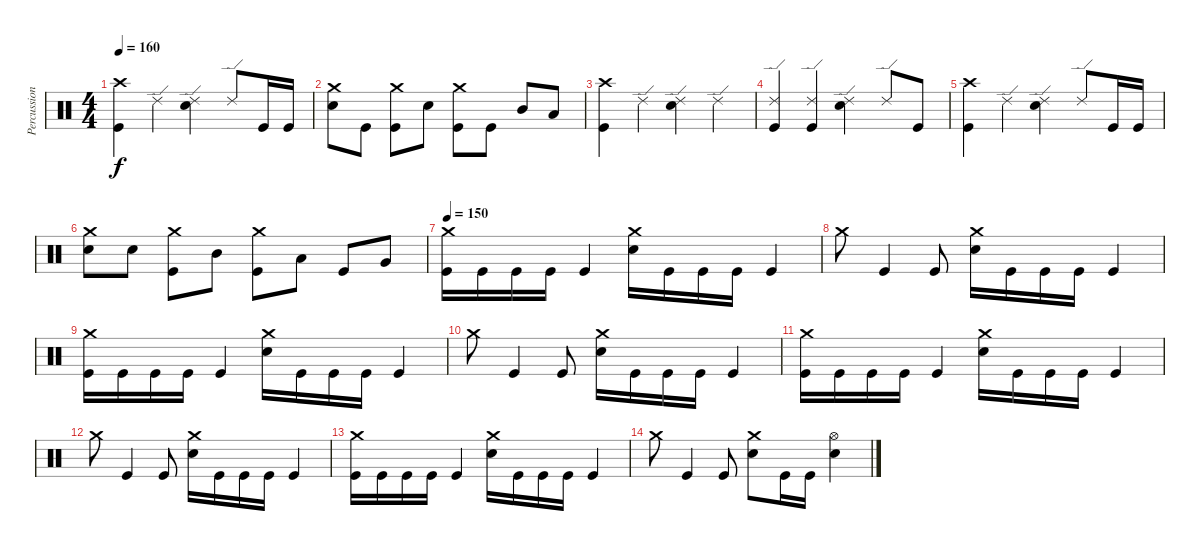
\track ("Percussion" "Percussion") {instrument percussion}
\staff {score}
\articulation defaults
\ts (4 4)
\tempo 160
\clef neutral
\ks c
("Crash high (hit)" "Kick (hit)").4{dy f} "Ride (edge) 2".4 ("Ride (edge) 2" "Electric Snare (hit)").4 "Ride (edge) 2".8 "Kick (hit)".16 "Kick (hit)".16 |
("Crash medium (hit)" "Electric Snare (hit)").8 "Kick (hit)".8 ("Crash medium (hit)" "Kick (hit)").8 "Electric Snare (hit)".8 ("Crash medium (hit)" "Kick (hit)").8 "Kick (hit)".8 "Mid Tom (hit)".8 "Low Tom (hit)".8 |
("Crash high (hit)" "Kick (hit)").4 "Ride (edge) 2".4 ("Ride (edge) 2" "Electric Snare (hit)").4 "Ride (edge) 2".4 |
("Ride (edge) 2" "Kick (hit)").4 ("Ride (edge) 2" "Kick (hit)").4 ("Ride (edge) 2" "Electric Snare (hit)").4 "Ride (edge) 2".8 "Kick (hit)".8 |
("Crash high (hit)" "Kick (hit)").4 "Ride (edge) 2".4 ("Ride (edge) 2" "Electric Snare (hit)").4 "Ride (edge) 2".8 "Kick (hit)".16 "Kick (hit)".16 |
("Crash medium (hit)" "Electric Snare (hit)").8 "Electric Snare (hit)".8 ("Crash medium (hit)" "Kick (hit)").8 "Mid Tom (hit)".8 ("Crash medium (hit)" "Kick (hit)").8 "Low Tom (hit)".8 "Kick (hit)".8 "Very Low Tom (hit)".8 |
\tempo 150
("Crash medium (hit)" "Kick (hit)").16 "Kick (hit)".16 "Kick (hit)".16 "Kick (hit)".16 "Kick (hit)".4 ("Crash medium (hit)" "Electric Snare (hit)").16 "Kick (hit)".16 "Kick (hit)".16 "Kick (hit)".16 "Kick (hit)".4 |
"Crash medium (hit)".8 "Kick (hit)".4 "Kick (hit)".8 ("Crash medium (hit)" "Electric Snare (hit)").16 "Kick (hit)".16 "Kick (hit)".16 "Kick (hit)".16 "Kick (hit)".4 |
("Crash medium (hit)" "Kick (hit)").16 "Kick (hit)".16 "Kick (hit)".16 "Kick (hit)".16 "Kick (hit)".4 ("Crash medium (hit)" "Electric Snare (hit)").16 "Kick (hit)".16 "Kick (hit)".16 "Kick (hit)".16 "Kick (hit)".4 |
"Crash medium (hit)".8 "Kick (hit)".4 "Kick (hit)".8 ("Crash medium (hit)" "Electric Snare (hit)").16 "Kick (hit)".16 "Kick (hit)".16 "Kick (hit)".16 "Kick (hit)".4 |
("Crash medium (hit)" "Kick (hit)").16 "Kick (hit)".16 "Kick (hit)".16 "Kick (hit)".16 "Kick (hit)".4 ("Crash medium (hit)" "Electric Snare (hit)").16 "Kick (hit)".16 "Kick (hit)".16 "Kick (hit)".16 "Kick (hit)".4 |
"Crash medium (hit)".8 "Kick (hit)".4 "Kick (hit)".8 ("Crash medium (hit)" "Electric Snare (hit)").16 "Kick (hit)".16 "Kick (hit)".16 "Kick (hit)".16 "Kick (hit)".4 |
("Crash medium (hit)" "Kick (hit)").16 "Kick (hit)".16 "Kick (hit)".16 "Kick (hit)".16 "Kick (hit)".4 ("Crash medium (hit)" "Electric Snare (hit)").16 "Kick (hit)".16 "Kick (hit)".16 "Kick (hit)".16 "Kick (hit)".4 |
"Crash medium (hit)".8 "Kick (hit)".4 "Kick (hit)".8 ("Crash medium (hit)" "Electric Snare (hit)").8 "Kick (hit)".16 "Kick (hit)".16 ("Hi-Hat (open)" "Electric Snare (hit)").4
